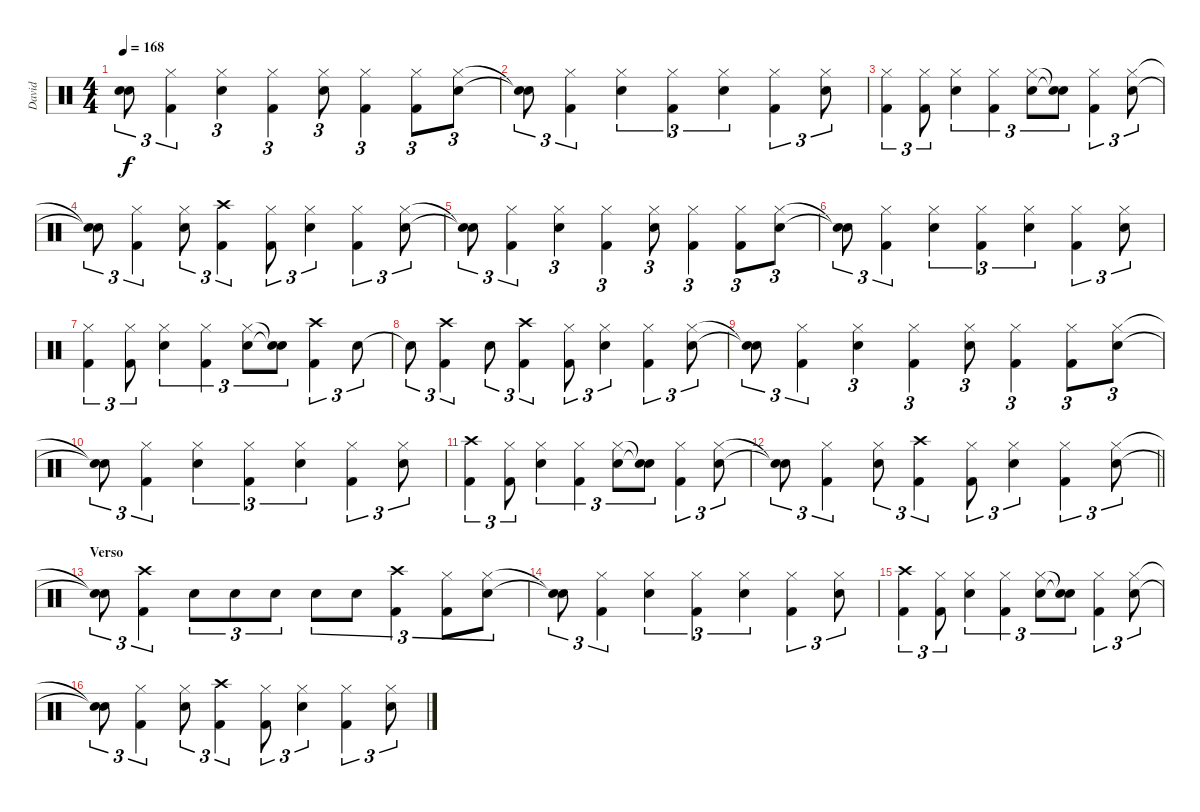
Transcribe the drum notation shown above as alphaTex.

\track ("David" "David") {instrument percussion}
\staff {score}
\articulation defaults
\ts (4 4)
\tempo 168
\clef neutral
\ks c
("Snare (hit)"{t} "Snare (hit)"{t}).8{tu (3 2) dy f} ("Hi-Hat (closed)" "Kick (hit) 2").4{tu (3 2)} ("Hi-Hat (closed)" "Snare (hit) 2").4{tu (3 2)} ("Hi-Hat (closed)" "Kick (hit) 2").4{tu (3 2)} ("Hi-Hat (closed)" "Snare (hit) 2").8{tu (3 2)} ("Hi-Hat (closed)" "Kick (hit) 2").4{tu (3 2)} ("Hi-Hat (closed)" "Kick (hit) 2").8{tu (3 2)} ("Hi-Hat (closed)" "Snare (hit) 2").8{tu (3 2)} |
("Snare (hit)"{t} "Snare (hit)"{t}).8{tu (3 2)} ("Hi-Hat (closed)" "Kick (hit) 2").4{tu (3 2)} ("Hi-Hat (closed)" "Snare (hit) 2").4{tu (3 2)} ("Hi-Hat (closed)" "Kick (hit) 2").4{tu (3 2)} ("Hi-Hat (closed)" "Snare (hit) 2").4{tu (3 2)} ("Hi-Hat (closed)" "Kick (hit) 2").4{tu (3 2)} ("Hi-Hat (closed)" "Snare (hit) 2").8{tu (3 2)} |
("Hi-Hat (closed)" "Kick (hit) 2").4{tu (3 2)} ("Hi-Hat (closed)" "Kick (hit) 2").8{tu (3 2)} ("Hi-Hat (closed)" "Snare (hit) 2").4{tu (3 2)} ("Hi-Hat (closed)" "Kick (hit) 2").4{tu (3 2)} ("Hi-Hat (closed)" "Snare (hit) 2").8{tu (3 2)} ("Snare (hit)"{t} "Snare (hit)"{t}).8{tu (3 2)} ("Hi-Hat (closed)" "Kick (hit) 2").4{tu (3 2)} ("Hi-Hat (closed)" "Snare (hit) 2").8{tu (3 2)} |
("Snare (hit)"{t} "Snare (hit)"{t}).8{tu (3 2)} ("Hi-Hat (closed)" "Kick (hit) 2").4{tu (3 2)} ("Hi-Hat (closed)" "Snare (hit) 2").8{tu (3 2)} ("Crash high (hit)" "Kick (hit) 2").4{tu (3 2)} ("Hi-Hat (closed)" "Kick (hit) 2").8{tu (3 2)} ("Hi-Hat (closed)" "Snare (hit) 2").4{tu (3 2)} ("Hi-Hat (closed)" "Kick (hit) 2").4{tu (3 2)} ("Hi-Hat (closed)" "Snare (hit) 2").8{tu (3 2)} |
("Snare (hit)"{t} "Snare (hit)"{t}).8{tu (3 2)} ("Hi-Hat (closed)" "Kick (hit) 2").4{tu (3 2)} ("Hi-Hat (closed)" "Snare (hit) 2").4{tu (3 2)} ("Hi-Hat (closed)" "Kick (hit) 2").4{tu (3 2)} ("Hi-Hat (closed)" "Snare (hit) 2").8{tu (3 2)} ("Hi-Hat (closed)" "Kick (hit) 2").4{tu (3 2)} ("Hi-Hat (closed)" "Kick (hit) 2").8{tu (3 2)} ("Hi-Hat (closed)" "Snare (hit) 2").8{tu (3 2)} |
("Snare (hit)"{t} "Snare (hit)"{t}).8{tu (3 2)} ("Hi-Hat (closed)" "Kick (hit) 2").4{tu (3 2)} ("Hi-Hat (closed)" "Snare (hit) 2").4{tu (3 2)} ("Hi-Hat (closed)" "Kick (hit) 2").4{tu (3 2)} ("Hi-Hat (closed)" "Snare (hit) 2").4{tu (3 2)} ("Hi-Hat (closed)" "Kick (hit) 2").4{tu (3 2)} ("Hi-Hat (closed)" "Snare (hit) 2").8{tu (3 2)} |
("Hi-Hat (closed)" "Kick (hit) 2").4{tu (3 2)} ("Hi-Hat (closed)" "Kick (hit) 2").8{tu (3 2)} ("Hi-Hat (closed)" "Snare (hit) 2").4{tu (3 2)} ("Hi-Hat (closed)" "Kick (hit) 2").4{tu (3 2)} ("Hi-Hat (closed)" "Snare (hit) 2").8{tu (3 2)} ("Snare (hit)"{t} "Snare (hit)"{t}).8{tu (3 2)} ("Crash high (hit)" "Kick (hit) 2").4{tu (3 2)} "Snare (hit) 2".8{tu (3 2)} |
"Snare (hit)"{t}.8{tu (3 2)} ("Crash high (hit)" "Kick (hit) 2").4{tu (3 2)} "Snare (hit) 2".8{tu (3 2)} ("Crash high (hit)" "Kick (hit) 2").4{tu (3 2)} ("Hi-Hat (closed)" "Kick (hit) 2").8{tu (3 2)} ("Hi-Hat (closed)" "Snare (hit) 2").4{tu (3 2)} ("Hi-Hat (closed)" "Kick (hit) 2").4{tu (3 2)} ("Hi-Hat (closed)" "Snare (hit) 2").8{tu (3 2)} |
("Snare (hit)"{t} "Snare (hit)"{t}).8{tu (3 2)} ("Hi-Hat (closed)" "Kick (hit) 2").4{tu (3 2)} ("Hi-Hat (closed)" "Snare (hit) 2").4{tu (3 2)} ("Hi-Hat (closed)" "Kick (hit) 2").4{tu (3 2)} ("Hi-Hat (closed)" "Snare (hit) 2").8{tu (3 2)} ("Hi-Hat (closed)" "Kick (hit) 2").4{tu (3 2)} ("Hi-Hat (closed)" "Kick (hit) 2").8{tu (3 2)} ("Hi-Hat (closed)" "Snare (hit) 2").8{tu (3 2)} |
("Snare (hit)"{t} "Snare (hit)"{t}).8{tu (3 2)} ("Hi-Hat (closed)" "Kick (hit) 2").4{tu (3 2)} ("Hi-Hat (closed)" "Snare (hit) 2").4{tu (3 2)} ("Hi-Hat (closed)" "Kick (hit) 2").4{tu (3 2)} ("Hi-Hat (closed)" "Snare (hit) 2").4{tu (3 2)} ("Hi-Hat (closed)" "Kick (hit) 2").4{tu (3 2)} ("Hi-Hat (closed)" "Snare (hit) 2").8{tu (3 2)} |
("Crash high (hit)" "Kick (hit) 2").4{tu (3 2)} ("Hi-Hat (closed)" "Kick (hit) 2").8{tu (3 2)} ("Hi-Hat (closed)" "Snare (hit) 2").4{tu (3 2)} ("Hi-Hat (closed)" "Kick (hit) 2").4{tu (3 2)} ("Hi-Hat (closed)" "Snare (hit) 2").8{tu (3 2)} ("Snare (hit)"{t} "Snare (hit)"{t}).8{tu (3 2)} ("Hi-Hat (closed)" "Kick (hit) 2").4{tu (3 2)} ("Hi-Hat (closed)" "Snare (hit) 2").8{tu (3 2)} |
\barLineRight lightlight
("Snare (hit)"{t} "Snare (hit)"{t}).8{tu (3 2)} ("Hi-Hat (closed)" "Kick (hit) 2").4{tu (3 2)} ("Hi-Hat (closed)" "Snare (hit) 2").8{tu (3 2)} ("Crash high (hit)" "Kick (hit) 2").4{tu (3 2)} ("Hi-Hat (closed)" "Kick (hit) 2").8{tu (3 2)} ("Hi-Hat (closed)" "Snare (hit) 2").4{tu (3 2)} ("Hi-Hat (closed)" "Kick (hit) 2").4{tu (3 2)} ("Hi-Hat (closed)" "Snare (hit) 2").8{tu (3 2)} |
\section ("" "Verso")
("Snare (hit)"{t} "Snare (hit)"{t}).8{tu (3 2)} ("Crash high (hit)" "Kick (hit) 2").4{tu (3 2)} "Snare (hit) 2".8{tu (3 2)} "Snare (hit) 2".8{tu (3 2)} "Snare (hit) 2".8{tu (3 2)} "Snare (hit) 2".8{tu (3 2)} "Snare (hit) 2".8{tu (3 2)} ("Crash high (hit)" "Kick (hit) 2").4{tu (3 2)} ("Hi-Hat (closed)" "Kick (hit) 2").8{tu (3 2)} ("Hi-Hat (closed)" "Snare (hit) 2").8{tu (3 2)} |
("Snare (hit)"{t} "Snare (hit)"{t}).8{tu (3 2)} ("Hi-Hat (closed)" "Kick (hit) 2").4{tu (3 2)} ("Hi-Hat (closed)" "Snare (hit) 2").4{tu (3 2)} ("Hi-Hat (closed)" "Kick (hit) 2").4{tu (3 2)} ("Hi-Hat (closed)" "Snare (hit) 2").4{tu (3 2)} ("Hi-Hat (closed)" "Kick (hit) 2").4{tu (3 2)} ("Hi-Hat (closed)" "Snare (hit) 2").8{tu (3 2)} |
("Crash high (hit)" "Kick (hit) 2").4{tu (3 2)} ("Hi-Hat (closed)" "Kick (hit) 2").8{tu (3 2)} ("Hi-Hat (closed)" "Snare (hit) 2").4{tu (3 2)} ("Hi-Hat (closed)" "Kick (hit) 2").4{tu (3 2)} ("Hi-Hat (closed)" "Snare (hit) 2").8{tu (3 2)} ("Snare (hit)"{t} "Snare (hit)"{t}).8{tu (3 2)} ("Hi-Hat (closed)" "Kick (hit) 2").4{tu (3 2)} ("Hi-Hat (closed)" "Snare (hit) 2").8{tu (3 2)} |
("Snare (hit)"{t} "Snare (hit)"{t}).8{tu (3 2)} ("Hi-Hat (closed)" "Kick (hit) 2").4{tu (3 2)} ("Hi-Hat (closed)" "Snare (hit) 2").8{tu (3 2)} ("Crash high (hit)" "Kick (hit) 2").4{tu (3 2)} ("Hi-Hat (closed)" "Kick (hit) 2").8{tu (3 2)} ("Hi-Hat (closed)" "Snare (hit) 2").4{tu (3 2)} ("Hi-Hat (closed)" "Kick (hit) 2").4{tu (3 2)} ("Hi-Hat (closed)" "Snare (hit) 2").8{tu (3 2)}
